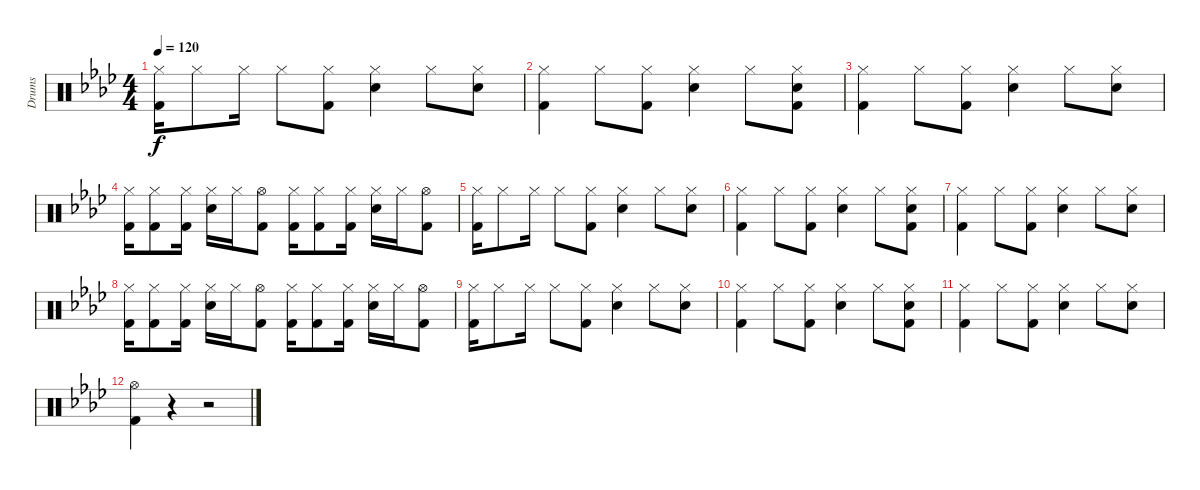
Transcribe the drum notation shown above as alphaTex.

\track ("Drums" "Drums") {instrument percussion}
\staff {score}
\articulation defaults
\ts (4 4)
\tempo 120
\clef neutral
\ks fminor
("Hi-Hat (closed)" "Kick (hit) 2").16{dy f} "Hi-Hat (closed)".8 "Hi-Hat (closed)".16 "Hi-Hat (closed)".8 ("Hi-Hat (closed)" "Kick (hit) 2").8 ("Hi-Hat (closed)" "Snare (hit) 2").4 "Hi-Hat (closed)".8 ("Hi-Hat (closed)" "Snare (hit) 2").8 |
("Hi-Hat (closed)" "Kick (hit) 2").4 "Hi-Hat (closed)".8 ("Hi-Hat (closed)" "Kick (hit) 2").8 ("Hi-Hat (closed)" "Snare (hit) 2").4 "Hi-Hat (closed)".8 ("Hi-Hat (closed)" "Snare (hit) 2" "Kick (hit) 2").8 |
("Hi-Hat (closed)" "Kick (hit) 2").4 "Hi-Hat (closed)".8 ("Hi-Hat (closed)" "Kick (hit) 2").8 ("Hi-Hat (closed)" "Snare (hit) 2").4 "Hi-Hat (closed)".8 ("Hi-Hat (closed)" "Snare (hit) 2").8 |
("Hi-Hat (closed)" "Kick (hit) 2").16 ("Hi-Hat (closed)" "Kick (hit) 2").8 ("Hi-Hat (closed)" "Kick (hit) 2").16 ("Hi-Hat (closed)" "Snare (hit) 2").16 "Hi-Hat (closed)".16 ("Hi-Hat (open)" "Kick (hit) 2").8 ("Hi-Hat (closed)" "Kick (hit) 2").16 ("Hi-Hat (closed)" "Kick (hit) 2").8 ("Hi-Hat (closed)" "Kick (hit) 2").16 ("Hi-Hat (closed)" "Snare (hit) 2").16 "Hi-Hat (closed)".16 ("Hi-Hat (open)" "Kick (hit) 2").8 |
("Hi-Hat (closed)" "Kick (hit) 2").16 "Hi-Hat (closed)".8 "Hi-Hat (closed)".16 "Hi-Hat (closed)".8 ("Hi-Hat (closed)" "Kick (hit) 2").8 ("Hi-Hat (closed)" "Snare (hit) 2").4 "Hi-Hat (closed)".8 ("Hi-Hat (closed)" "Snare (hit) 2").8 |
("Hi-Hat (closed)" "Kick (hit) 2").4 "Hi-Hat (closed)".8 ("Hi-Hat (closed)" "Kick (hit) 2").8 ("Hi-Hat (closed)" "Snare (hit) 2").4 "Hi-Hat (closed)".8 ("Hi-Hat (closed)" "Snare (hit) 2" "Kick (hit) 2").8 |
("Hi-Hat (closed)" "Kick (hit) 2").4 "Hi-Hat (closed)".8 ("Hi-Hat (closed)" "Kick (hit) 2").8 ("Hi-Hat (closed)" "Snare (hit) 2").4 "Hi-Hat (closed)".8 ("Hi-Hat (closed)" "Snare (hit) 2").8 |
("Hi-Hat (closed)" "Kick (hit) 2").16 ("Hi-Hat (closed)" "Kick (hit) 2").8 ("Hi-Hat (closed)" "Kick (hit) 2").16 ("Hi-Hat (closed)" "Snare (hit) 2").16 "Hi-Hat (closed)".16 ("Hi-Hat (open)" "Kick (hit) 2").8 ("Hi-Hat (closed)" "Kick (hit) 2").16 ("Hi-Hat (closed)" "Kick (hit) 2").8 ("Hi-Hat (closed)" "Kick (hit) 2").16 ("Hi-Hat (closed)" "Snare (hit) 2").16 "Hi-Hat (closed)".16 ("Hi-Hat (open)" "Kick (hit) 2").8 |
("Hi-Hat (closed)" "Kick (hit) 2").16 "Hi-Hat (closed)".8 "Hi-Hat (closed)".16 "Hi-Hat (closed)".8 ("Hi-Hat (closed)" "Kick (hit) 2").8 ("Hi-Hat (closed)" "Snare (hit) 2").4 "Hi-Hat (closed)".8 ("Hi-Hat (closed)" "Snare (hit) 2").8 |
("Hi-Hat (closed)" "Kick (hit) 2").4 "Hi-Hat (closed)".8 ("Hi-Hat (closed)" "Kick (hit) 2").8 ("Hi-Hat (closed)" "Snare (hit) 2").4 "Hi-Hat (closed)".8 ("Hi-Hat (closed)" "Snare (hit) 2" "Kick (hit) 2").8 |
("Hi-Hat (closed)" "Kick (hit) 2").4 "Hi-Hat (closed)".8 ("Hi-Hat (closed)" "Kick (hit) 2").8 ("Hi-Hat (closed)" "Snare (hit) 2").4 "Hi-Hat (closed)".8 ("Hi-Hat (closed)" "Snare (hit) 2").8 |
("Hi-Hat (open)" "Kick (hit) 2").4 r.4 r.2
